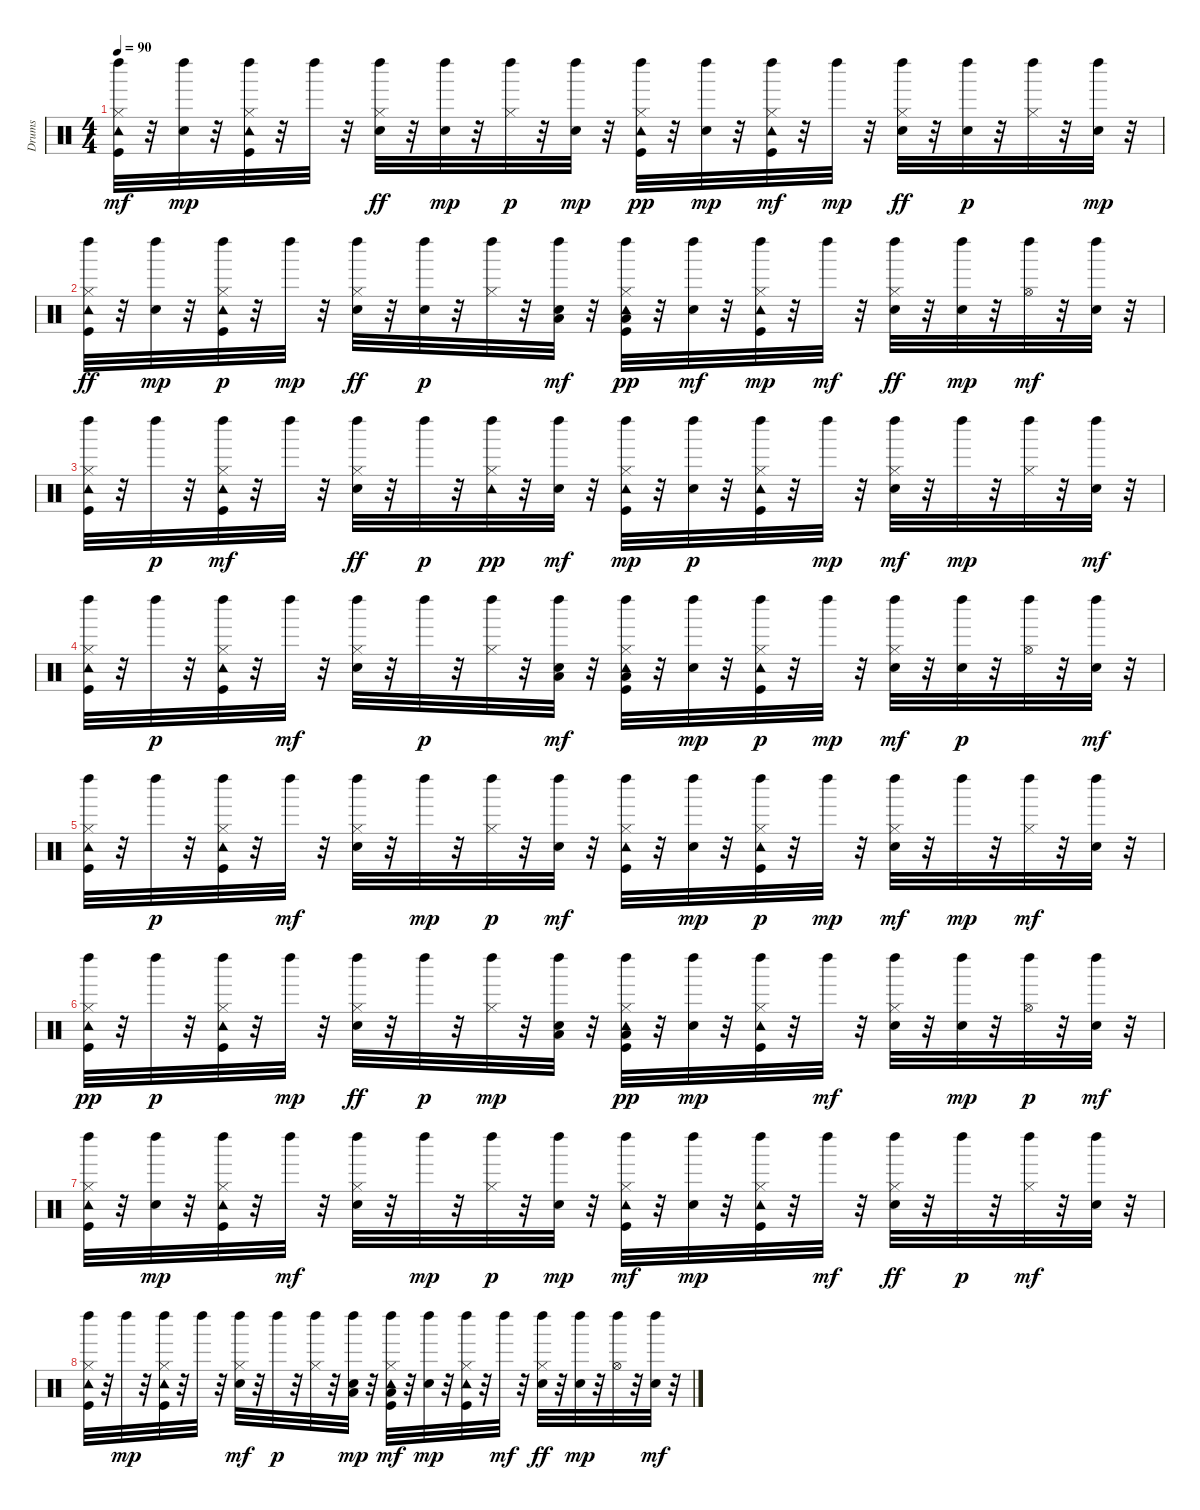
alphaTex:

\track ("Drums" "Drums") {instrument percussion}
\staff {score}
\articulation defaults
\ts (4 4)
\tempo 90
\clef neutral
\ks c
("Tambourine (hit)" "Hi-Hat (closed)" "Kick (hit)" "Left Maraca (hit)").32{dy mf} r.32 ("Electric Snare (hit)" "Left Maraca (hit)").32{dy mp} r.32 ("Tambourine (hit)" "Hi-Hat (closed)" "Kick (hit)" "Left Maraca (hit)").32 r.32 "Left Maraca (hit)".32 r.32 ("Hi-Hat (closed)" "Electric Snare (hit)" "Left Maraca (hit)").32{dy ff} r.32 ("Left Maraca (hit)" "Electric Snare (hit)").32{dy mp} r.32 ("Hi-Hat (closed)" "Left Maraca (hit)").32{dy p} r.32 ("Electric Snare (hit)" "Left Maraca (hit)").32{dy mp} r.32 ("Tambourine (hit)" "Left Maraca (hit)" "Hi-Hat (closed)" "Kick (hit)").32{dy pp} r.32 ("Left Maraca (hit)" "Electric Snare (hit)").32{dy mp} r.32 ("Tambourine (hit)" "Left Maraca (hit)" "Hi-Hat (closed)" "Kick (hit)").32{dy mf} r.32 "Left Maraca (hit)".32{dy mp} r.32 ("Hi-Hat (closed)" "Electric Snare (hit)" "Left Maraca (hit)").32{dy ff} r.32 ("Electric Snare (hit)" "Left Maraca (hit)").32{dy p} r.32 ("Hi-Hat (closed)" "Left Maraca (hit)").32 r.32 ("Electric Snare (hit)" "Left Maraca (hit)").32{dy mp} r.32 |
("Tambourine (hit)" "Left Maraca (hit)" "Hi-Hat (closed)" "Kick (hit)").32{dy ff} r.32 ("Electric Snare (hit)" "Left Maraca (hit)").32{dy mp} r.32 ("Tambourine (hit)" "Hi-Hat (closed)" "Kick (hit)" "Left Maraca (hit)").32{dy p} r.32 "Left Maraca (hit)".32{dy mp} r.32 ("Hi-Hat (closed)" "Electric Snare (hit)" "Left Maraca (hit)").32{dy ff} r.32 ("Electric Snare (hit)" "Left Maraca (hit)").32{dy p} r.32 ("Hi-Hat (closed)" "Left Maraca (hit)").32 r.32 ("Electric Snare (hit)" "Low Tom (hit)" "Left Maraca (hit)").32{dy mf} r.32 ("Low Floor Tom (hit)" "Hi-Hat (closed)" "Kick (hit)" "Tambourine (hit)" "Left Maraca (hit)").32{dy pp} r.32 ("Left Maraca (hit)" "Electric Snare (hit)").32{dy mf} r.32 ("Tambourine (hit)" "Hi-Hat (closed)" "Kick (hit)" "Left Maraca (hit)").32{dy mp} r.32 "Left Maraca (hit)".32{dy mf} r.32 ("Electric Snare (hit)" "Hi-Hat (closed)" "Left Maraca (hit)").32{dy ff} r.32 ("Electric Snare (hit)" "Left Maraca (hit)").32{dy mp} r.32 ("Hi-Hat (open)" "Left Maraca (hit)").32{dy mf} r.32 ("Electric Snare (hit)" "Left Maraca (hit)").32 r.32 |
("Kick (hit)" "Tambourine (hit)" "Left Maraca (hit)" "Hi-Hat (closed)").32 r.32 "Left Maraca (hit)".32{dy p} r.32 ("Kick (hit)" "Tambourine (hit)" "Left Maraca (hit)" "Hi-Hat (closed)").32{dy mf} r.32 "Left Maraca (hit)".32 r.32 ("Left Maraca (hit)" "Hi-Hat (closed)" "Electric Snare (hit)").32{dy ff} r.32 "Left Maraca (hit)".32{dy p} r.32 ("Tambourine (hit)" "Hi-Hat (closed)" "Left Maraca (hit)").32{dy pp} r.32 ("Left Maraca (hit)" "Electric Snare (hit)").32{dy mf} r.32 ("Hi-Hat (closed)" "Tambourine (hit)" "Kick (hit)" "Left Maraca (hit)").32{dy mp} r.32 ("Electric Snare (hit)" "Left Maraca (hit)").32{dy p} r.32 ("Hi-Hat (closed)" "Kick (hit)" "Tambourine (hit)" "Left Maraca (hit)").32 r.32 "Left Maraca (hit)".32{dy mp} r.32 ("Electric Snare (hit)" "Hi-Hat (closed)" "Left Maraca (hit)").32{dy mf} r.32 "Left Maraca (hit)".32{dy mp} r.32 ("Left Maraca (hit)" "Hi-Hat (closed)").32 r.32 ("Electric Snare (hit)" "Left Maraca (hit)").32{dy mf} r.32 |
("Kick (hit)" "Hi-Hat (closed)" "Tambourine (hit)" "Left Maraca (hit)").32 r.32 "Left Maraca (hit)".32{dy p} r.32 ("Kick (hit)" "Hi-Hat (closed)" "Tambourine (hit)" "Left Maraca (hit)").32 r.32 "Left Maraca (hit)".32{dy mf} r.32 ("Electric Snare (hit)" "Hi-Hat (closed)" "Left Maraca (hit)").32 r.32 "Left Maraca (hit)".32{dy p} r.32 ("Hi-Hat (closed)" "Left Maraca (hit)").32 r.32 ("Left Maraca (hit)" "Electric Snare (hit)" "Low Tom (hit)").32{dy mf} r.32 ("Kick (hit)" "Tambourine (hit)" "Left Maraca (hit)" "Hi-Hat (closed)" "Low Floor Tom (hit)").32 r.32 ("Electric Snare (hit)" "Left Maraca (hit)").32{dy mp} r.32 ("Kick (hit)" "Hi-Hat (closed)" "Tambourine (hit)" "Left Maraca (hit)").32{dy p} r.32 "Left Maraca (hit)".32{dy mp} r.32 ("Electric Snare (hit)" "Hi-Hat (closed)" "Left Maraca (hit)").32{dy mf} r.32 ("Left Maraca (hit)" "Electric Snare (hit)").32{dy p} r.32 ("Hi-Hat (open)" "Left Maraca (hit)").32 r.32 ("Electric Snare (hit)" "Left Maraca (hit)").32{dy mf} r.32 |
("Hi-Hat (closed)" "Kick (hit)" "Tambourine (hit)" "Left Maraca (hit)").32 r.32 "Left Maraca (hit)".32{dy p} r.32 ("Hi-Hat (closed)" "Tambourine (hit)" "Kick (hit)" "Left Maraca (hit)").32 r.32 "Left Maraca (hit)".32{dy mf} r.32 ("Electric Snare (hit)" "Left Maraca (hit)" "Hi-Hat (closed)").32 r.32 "Left Maraca (hit)".32{dy mp} r.32 ("Hi-Hat (closed)" "Left Maraca (hit)").32{dy p} r.32 ("Electric Snare (hit)" "Left Maraca (hit)").32{dy mf} r.32 ("Kick (hit)" "Tambourine (hit)" "Left Maraca (hit)" "Hi-Hat (closed)").32 r.32 ("Electric Snare (hit)" "Left Maraca (hit)").32{dy mp} r.32 ("Kick (hit)" "Left Maraca (hit)" "Hi-Hat (closed)" "Tambourine (hit)").32{dy p} r.32 "Left Maraca (hit)".32{dy mp} r.32 ("Electric Snare (hit)" "Left Maraca (hit)" "Hi-Hat (closed)").32{dy mf} r.32 "Left Maraca (hit)".32{dy mp} r.32 ("Left Maraca (hit)" "Hi-Hat (closed)").32{dy mf} r.32 ("Electric Snare (hit)" "Left Maraca (hit)").32 r.32 |
("Kick (hit)" "Left Maraca (hit)" "Hi-Hat (closed)" "Tambourine (hit)").32{dy pp} r.32 "Left Maraca (hit)".32{dy p} r.32 ("Kick (hit)" "Tambourine (hit)" "Hi-Hat (closed)" "Left Maraca (hit)").32 r.32 "Left Maraca (hit)".32{dy mp} r.32 ("Electric Snare (hit)" "Left Maraca (hit)" "Hi-Hat (closed)").32{dy ff} r.32 "Left Maraca (hit)".32{dy p} r.32 ("Left Maraca (hit)" "Hi-Hat (closed)").32{dy mp} r.32 ("Electric Snare (hit)" "Left Maraca (hit)" "Low Tom (hit)").32 r.32 ("Left Maraca (hit)" "Kick (hit)" "Hi-Hat (closed)" "Low Floor Tom (hit)" "Tambourine (hit)").32{dy pp} r.32 ("Electric Snare (hit)" "Left Maraca (hit)").32{dy mp} r.32 ("Kick (hit)" "Hi-Hat (closed)" "Tambourine (hit)" "Left Maraca (hit)").32 r.32 "Left Maraca (hit)".32{dy mf} r.32 ("Electric Snare (hit)" "Left Maraca (hit)" "Hi-Hat (closed)").32 r.32 ("Electric Snare (hit)" "Left Maraca (hit)").32{dy mp} r.32 ("Hi-Hat (open)" "Left Maraca (hit)").32{dy p} r.32 ("Left Maraca (hit)" "Electric Snare (hit)").32{dy mf} r.32 |
("Tambourine (hit)" "Kick (hit)" "Left Maraca (hit)" "Hi-Hat (closed)").32 r.32 ("Electric Snare (hit)" "Left Maraca (hit)").32{dy mp} r.32 ("Kick (hit)" "Hi-Hat (closed)" "Tambourine (hit)" "Left Maraca (hit)").32 r.32 "Left Maraca (hit)".32{dy mf} r.32 ("Hi-Hat (closed)" "Left Maraca (hit)" "Electric Snare (hit)").32 r.32 "Left Maraca (hit)".32{dy mp} r.32 ("Hi-Hat (closed)" "Left Maraca (hit)").32{dy p} r.32 ("Electric Snare (hit)" "Left Maraca (hit)").32{dy mp} r.32 ("Kick (hit)" "Tambourine (hit)" "Hi-Hat (closed)" "Left Maraca (hit)").32{dy mf} r.32 ("Electric Snare (hit)" "Left Maraca (hit)").32{dy mp} r.32 ("Kick (hit)" "Tambourine (hit)" "Hi-Hat (closed)" "Left Maraca (hit)").32 r.32 "Left Maraca (hit)".32{dy mf} r.32 ("Left Maraca (hit)" "Hi-Hat (closed)" "Electric Snare (hit)").32{dy ff} r.32 "Left Maraca (hit)".32{dy p} r.32 ("Left Maraca (hit)" "Hi-Hat (closed)").32{dy mf} r.32 ("Left Maraca (hit)" "Electric Snare (hit)").32 r.32 |
("Kick (hit)" "Tambourine (hit)" "Left Maraca (hit)" "Hi-Hat (closed)").32 r.32 "Left Maraca (hit)".32{dy mp} r.32 ("Hi-Hat (closed)" "Kick (hit)" "Tambourine (hit)" "Left Maraca (hit)").32 r.32 "Left Maraca (hit)".32 r.32 ("Hi-Hat (closed)" "Electric Snare (hit)" "Left Maraca (hit)").32{dy mf} r.32 "Left Maraca (hit)".32{dy p} r.32 ("Hi-Hat (closed)" "Left Maraca (hit)").32 r.32 ("Low Tom (hit)" "Electric Snare (hit)" "Left Maraca (hit)").32{dy mp} r.32 ("Kick (hit)" "Low Floor Tom (hit)" "Tambourine (hit)" "Left Maraca (hit)" "Hi-Hat (closed)").32{dy mf} r.32 ("Electric Snare (hit)" "Left Maraca (hit)").32{dy mp} r.32 ("Kick (hit)" "Tambourine (hit)" "Hi-Hat (closed)" "Left Maraca (hit)").32 r.32 "Left Maraca (hit)".32{dy mf} r.32 ("Electric Snare (hit)" "Left Maraca (hit)" "Hi-Hat (closed)").32{dy ff} r.32 ("Electric Snare (hit)" "Left Maraca (hit)").32{dy mp} r.32 ("Hi-Hat (open)" "Left Maraca (hit)").32 r.32 ("Electric Snare (hit)" "Left Maraca (hit)").32{dy mf} r.32
